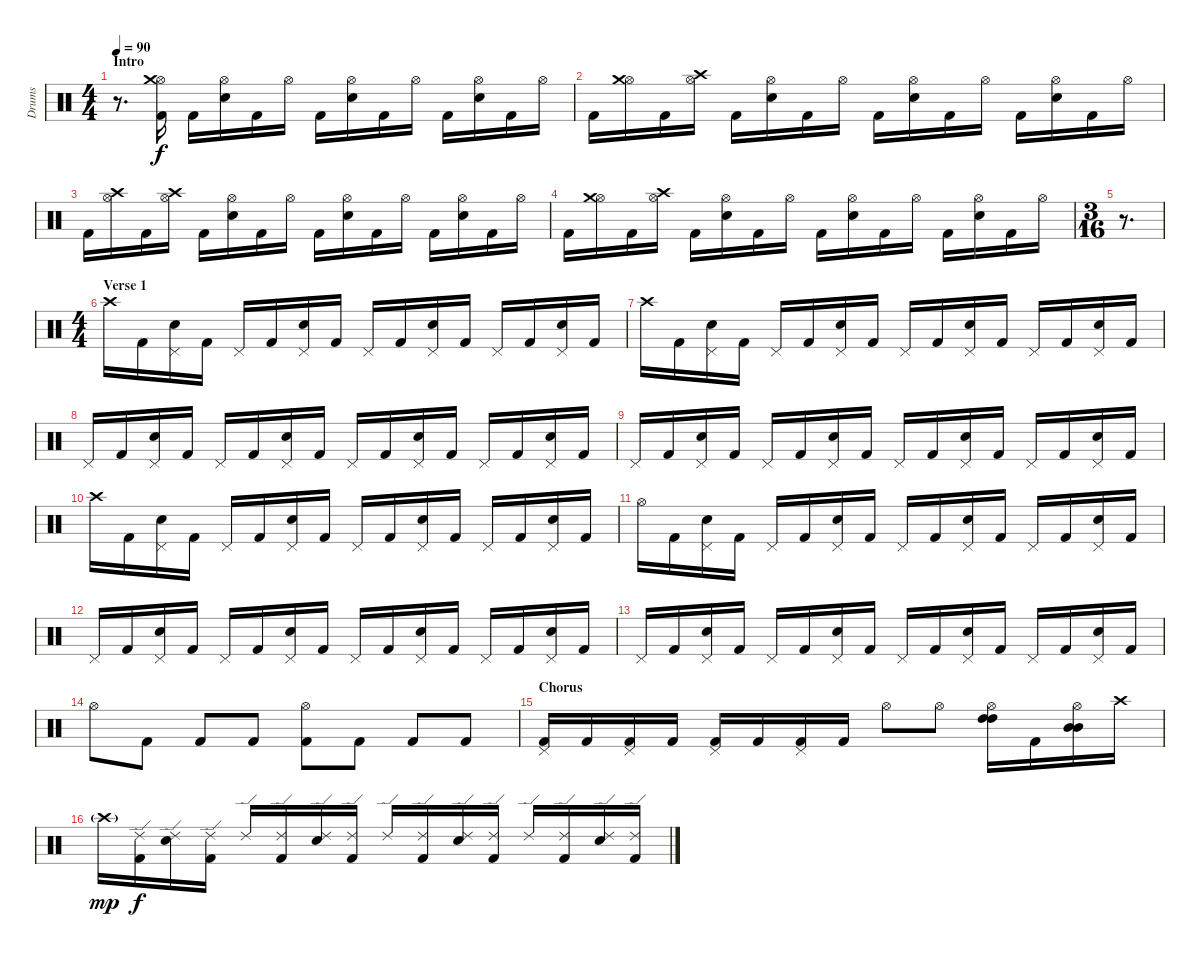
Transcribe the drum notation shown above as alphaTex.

\track ("Drums" "Drums") {instrument percussion}
\staff {score}
\articulation defaults
\ts (4 4)
\section ("" "Intro")
\tempo 90
\clef neutral
\ks c
r.8{d dy f} ("Hi-Hat (open)" "Crash medium (hit)" "Kick (hit) 2").16 "Kick (hit) 2".16 ("Hi-Hat (open)" "Snare (hit) 2").16 "Kick (hit) 2".16 "Hi-Hat (open)".16 "Kick (hit) 2".16 ("Hi-Hat (open)" "Snare (hit) 2").16 "Kick (hit) 2".16 "Hi-Hat (open)".16 "Kick (hit) 2".16 ("Hi-Hat (open)" "Snare (hit) 2").16 "Kick (hit) 2".16 "Hi-Hat (open)".16 |
"Kick (hit) 2".16 ("Hi-Hat (open)" "Crash medium (hit)").16 "Kick (hit) 2".16 ("Hi-Hat (open)" "Crash high (hit)").16 "Kick (hit) 2".16 ("Hi-Hat (open)" "Snare (hit) 2").16 "Kick (hit) 2".16 "Hi-Hat (open)".16 "Kick (hit) 2".16 ("Hi-Hat (open)" "Snare (hit) 2").16 "Kick (hit) 2".16 "Hi-Hat (open)".16 "Kick (hit) 2".16 ("Hi-Hat (open)" "Snare (hit) 2").16 "Kick (hit) 2".16 "Hi-Hat (open)".16 |
"Kick (hit) 2".16 ("Hi-Hat (open)" "Crash high (hit)").16 "Kick (hit) 2".16 ("Hi-Hat (open)" "Crash high (hit)").16 "Kick (hit) 2".16 ("Hi-Hat (open)" "Snare (hit) 2").16 "Kick (hit) 2".16 "Hi-Hat (open)".16 "Kick (hit) 2".16 ("Hi-Hat (open)" "Snare (hit) 2").16 "Kick (hit) 2".16 "Hi-Hat (open)".16 "Kick (hit) 2".16 ("Hi-Hat (open)" "Snare (hit) 2").16 "Kick (hit) 2".16 "Hi-Hat (open)".16 |
"Kick (hit) 2".16 ("Hi-Hat (open)" "Crash medium (hit)").16 "Kick (hit) 2".16 ("Hi-Hat (open)" "Crash high (hit)").16 "Kick (hit) 2".16 ("Hi-Hat (open)" "Snare (hit) 2").16 "Kick (hit) 2".16 "Hi-Hat (open)".16 "Kick (hit) 2".16 ("Hi-Hat (open)" "Snare (hit) 2").16 "Kick (hit) 2".16 "Hi-Hat (open)".16 "Kick (hit) 2".16 ("Hi-Hat (open)" "Snare (hit) 2").16 "Kick (hit) 2".16 "Hi-Hat (open)".16 |
\ts (3 16)
r.8{d} |
\ts (4 4)
\section ("" "Verse 1")
"Crash high (hit)".16 "Kick (hit) 2".16 ("Pedal Hi-Hat (hit)" "Snare (hit) 2").16 "Kick (hit) 2".16 "Pedal Hi-Hat (hit)".16 "Kick (hit) 2".16 ("Pedal Hi-Hat (hit)" "Snare (hit) 2").16 "Kick (hit) 2".16 "Pedal Hi-Hat (hit)".16 "Kick (hit) 2".16 ("Pedal Hi-Hat (hit)" "Snare (hit) 2").16 "Kick (hit) 2".16 "Pedal Hi-Hat (hit)".16 "Kick (hit) 2".16 ("Pedal Hi-Hat (hit)" "Snare (hit) 2").16 "Kick (hit) 2".16 |
"Crash high (hit)".16 "Kick (hit) 2".16 ("Pedal Hi-Hat (hit)" "Snare (hit) 2").16 "Kick (hit) 2".16 "Pedal Hi-Hat (hit)".16 "Kick (hit) 2".16 ("Pedal Hi-Hat (hit)" "Snare (hit) 2").16 "Kick (hit) 2".16 "Pedal Hi-Hat (hit)".16 "Kick (hit) 2".16 ("Pedal Hi-Hat (hit)" "Snare (hit) 2").16 "Kick (hit) 2".16 "Pedal Hi-Hat (hit)".16 "Kick (hit) 2".16 ("Pedal Hi-Hat (hit)" "Snare (hit) 2").16 "Kick (hit) 2".16 |
"Pedal Hi-Hat (hit)".16 "Kick (hit) 2".16 ("Pedal Hi-Hat (hit)" "Snare (hit) 2").16 "Kick (hit) 2".16 "Pedal Hi-Hat (hit)".16 "Kick (hit) 2".16 ("Pedal Hi-Hat (hit)" "Snare (hit) 2").16 "Kick (hit) 2".16 "Pedal Hi-Hat (hit)".16 "Kick (hit) 2".16 ("Pedal Hi-Hat (hit)" "Snare (hit) 2").16 "Kick (hit) 2".16 "Pedal Hi-Hat (hit)".16 "Kick (hit) 2".16 ("Pedal Hi-Hat (hit)" "Snare (hit) 2").16 "Kick (hit) 2".16 |
"Pedal Hi-Hat (hit)".16 "Kick (hit) 2".16 ("Pedal Hi-Hat (hit)" "Snare (hit) 2").16 "Kick (hit) 2".16 "Pedal Hi-Hat (hit)".16 "Kick (hit) 2".16 ("Pedal Hi-Hat (hit)" "Snare (hit) 2").16 "Kick (hit) 2".16 "Pedal Hi-Hat (hit)".16 "Kick (hit) 2".16 ("Pedal Hi-Hat (hit)" "Snare (hit) 2").16 "Kick (hit) 2".16 "Pedal Hi-Hat (hit)".16 "Kick (hit) 2".16 ("Pedal Hi-Hat (hit)" "Snare (hit) 2").16 "Kick (hit) 2".16 |
"Crash high (hit)".16 "Kick (hit) 2".16 ("Pedal Hi-Hat (hit)" "Snare (hit) 2").16 "Kick (hit) 2".16 "Pedal Hi-Hat (hit)".16 "Kick (hit) 2".16 ("Pedal Hi-Hat (hit)" "Snare (hit) 2").16 "Kick (hit) 2".16 "Pedal Hi-Hat (hit)".16 "Kick (hit) 2".16 ("Pedal Hi-Hat (hit)" "Snare (hit) 2").16 "Kick (hit) 2".16 "Pedal Hi-Hat (hit)".16 "Kick (hit) 2".16 ("Pedal Hi-Hat (hit)" "Snare (hit) 2").16 "Kick (hit) 2".16 |
"Hi-Hat (open)".16 "Kick (hit) 2".16 ("Pedal Hi-Hat (hit)" "Snare (hit) 2").16 "Kick (hit) 2".16 "Pedal Hi-Hat (hit)".16 "Kick (hit) 2".16 ("Pedal Hi-Hat (hit)" "Snare (hit) 2").16 "Kick (hit) 2".16 "Pedal Hi-Hat (hit)".16 "Kick (hit) 2".16 ("Pedal Hi-Hat (hit)" "Snare (hit) 2").16 "Kick (hit) 2".16 "Pedal Hi-Hat (hit)".16 "Kick (hit) 2".16 ("Pedal Hi-Hat (hit)" "Snare (hit) 2").16 "Kick (hit) 2".16 |
"Pedal Hi-Hat (hit)".16 "Kick (hit) 2".16 ("Pedal Hi-Hat (hit)" "Snare (hit) 2").16 "Kick (hit) 2".16 "Pedal Hi-Hat (hit)".16 "Kick (hit) 2".16 ("Pedal Hi-Hat (hit)" "Snare (hit) 2").16 "Kick (hit) 2".16 "Pedal Hi-Hat (hit)".16 "Kick (hit) 2".16 ("Pedal Hi-Hat (hit)" "Snare (hit) 2").16 "Kick (hit) 2".16 "Pedal Hi-Hat (hit)".16 "Kick (hit) 2".16 ("Pedal Hi-Hat (hit)" "Snare (hit) 2").16 "Kick (hit) 2".16 |
"Pedal Hi-Hat (hit)".16 "Kick (hit) 2".16 ("Pedal Hi-Hat (hit)" "Snare (hit) 2").16 "Kick (hit) 2".16 "Pedal Hi-Hat (hit)".16 "Kick (hit) 2".16 ("Pedal Hi-Hat (hit)" "Snare (hit) 2").16 "Kick (hit) 2".16 "Pedal Hi-Hat (hit)".16 "Kick (hit) 2".16 ("Pedal Hi-Hat (hit)" "Snare (hit) 2").16 "Kick (hit) 2".16 "Pedal Hi-Hat (hit)".16 "Kick (hit) 2".16 ("Pedal Hi-Hat (hit)" "Snare (hit) 2").16 "Kick (hit) 2".16 |
"Hi-Hat (open)".8 "Kick (hit) 2".8 "Kick (hit) 2".8 "Kick (hit) 2".8 ("Hi-Hat (open)" "Kick (hit) 2").8 "Kick (hit) 2".8 "Kick (hit) 2".8 "Kick (hit) 2".8 |
\section ("" "Chorus")
("Pedal Hi-Hat (hit)" "Kick (hit) 2").16 "Kick (hit) 2".16 ("Pedal Hi-Hat (hit)" "Kick (hit) 2").16 "Kick (hit) 2".16 ("Pedal Hi-Hat (hit)" "Kick (hit) 2").16 "Kick (hit) 2".16 ("Pedal Hi-Hat (hit)" "Kick (hit) 2").16 "Kick (hit) 2".16 "Hi-Hat (open)".8 "Hi-Hat (open)".8 ("High Tom (hit)" "Hi-Hat (open)" "High Tom (hit)").16 "Kick (hit) 2".16 ("Mid Tom (hit)" "Hi-Hat (open)" "Mid Tom (hit)").16 "Crash high (hit)".16 |
"Crash high (hit)"{g}.16{dy mp} ("Ride (edge) 2" "Kick (hit) 2").16{dy f} ("Ride (edge) 2" "Snare (hit) 2").16 ("Ride (edge) 2" "Kick (hit) 2").16 "Ride (edge) 2".16 ("Ride (edge) 2" "Kick (hit) 2").16 ("Ride (edge) 2" "Snare (hit) 2").16 ("Ride (edge) 2" "Kick (hit) 2").16 "Ride (edge) 2".16 ("Ride (edge) 2" "Kick (hit) 2").16 ("Ride (edge) 2" "Snare (hit) 2").16 ("Ride (edge) 2" "Kick (hit) 2").16 "Ride (edge) 2".16 ("Ride (edge) 2" "Kick (hit) 2").16 ("Ride (edge) 2" "Snare (hit) 2").16 ("Ride (edge) 2" "Kick (hit) 2").16
